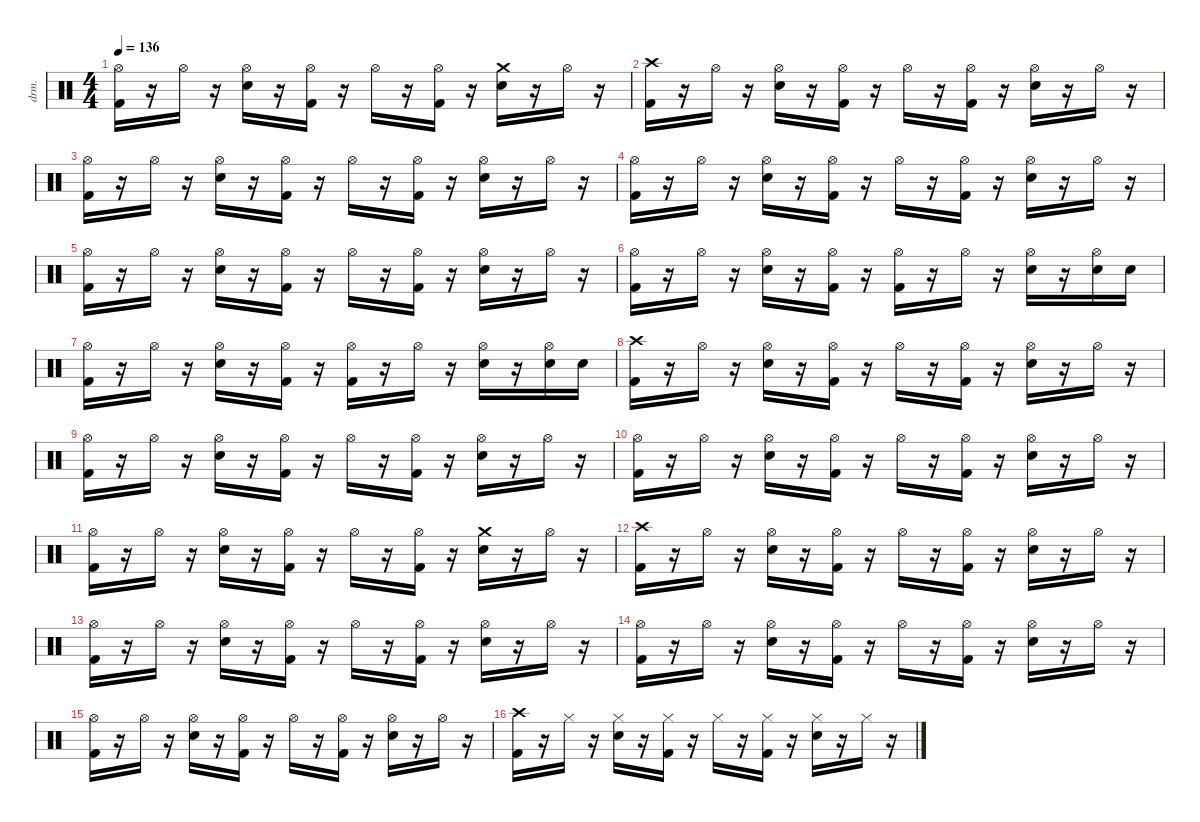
\defaultSystemsLayout 4
\hideDynamics
\bracketExtendMode nobrackets
\otherSystemsTrackNameOrientation horizontal
\track ("Drums" "drm.") {instrument percussion}
\staff {score}
\articulation defaults
\ts (4 4)
\tempo 136
\clef neutral
\ks c
("Kick (hit) 2" "Hi-Hat (open)").16{dy f} r.16 "Hi-Hat (open)".16 r.16 ("Snare (hit) 2" "Hi-Hat (open)").16 r.16 ("Kick (hit) 2" "Hi-Hat (open)").16 r.16 "Hi-Hat (open)".16 r.16 ("Kick (hit) 2" "Hi-Hat (open)").16 r.16 ("Snare (hit) 2" "Crash medium (hit)").16 r.16 "Hi-Hat (open)".16 r.16 |
("Kick (hit) 2" "Crash high (hit)").16 r.16 "Hi-Hat (open)".16 r.16 ("Snare (hit) 2" "Hi-Hat (open)").16 r.16 ("Kick (hit) 2" "Hi-Hat (open)").16 r.16 "Hi-Hat (open)".16 r.16 ("Kick (hit) 2" "Hi-Hat (open)").16 r.16 ("Snare (hit) 2" "Hi-Hat (open)").16 r.16 "Hi-Hat (open)".16 r.16 |
("Kick (hit) 2" "Hi-Hat (open)").16 r.16 "Hi-Hat (open)".16 r.16 ("Snare (hit) 2" "Hi-Hat (open)").16 r.16 ("Kick (hit) 2" "Hi-Hat (open)").16 r.16 "Hi-Hat (open)".16 r.16 ("Kick (hit) 2" "Hi-Hat (open)").16 r.16 ("Snare (hit) 2" "Hi-Hat (open)").16 r.16 "Hi-Hat (open)".16 r.16 |
("Kick (hit) 2" "Hi-Hat (open)").16 r.16 "Hi-Hat (open)".16 r.16 ("Snare (hit) 2" "Hi-Hat (open)").16 r.16 ("Kick (hit) 2" "Hi-Hat (open)").16 r.16 "Hi-Hat (open)".16 r.16 ("Kick (hit) 2" "Hi-Hat (open)").16 r.16 ("Snare (hit) 2" "Hi-Hat (open)").16 r.16 "Hi-Hat (open)".16 r.16 |
("Kick (hit) 2" "Hi-Hat (open)").16 r.16 "Hi-Hat (open)".16 r.16 ("Snare (hit) 2" "Hi-Hat (open)").16 r.16 ("Kick (hit) 2" "Hi-Hat (open)").16 r.16 "Hi-Hat (open)".16 r.16 ("Kick (hit) 2" "Hi-Hat (open)").16 r.16 ("Snare (hit) 2" "Hi-Hat (open)").16 r.16 "Hi-Hat (open)".16 r.16 |
("Kick (hit) 2" "Hi-Hat (open)").16 r.16 "Hi-Hat (open)".16 r.16 ("Snare (hit) 2" "Hi-Hat (open)").16 r.16 ("Kick (hit) 2" "Hi-Hat (open)").16 r.16 ("Kick (hit) 2" "Hi-Hat (open)").16 r.16 "Hi-Hat (open)".16 r.16 ("Snare (hit) 2" "Hi-Hat (open)").16 r.16 ("Snare (hit) 2" "Hi-Hat (open)").16 "Snare (hit) 2".16 |
("Kick (hit) 2" "Hi-Hat (open)").16 r.16 "Hi-Hat (open)".16 r.16 ("Snare (hit) 2" "Hi-Hat (open)").16 r.16 ("Kick (hit) 2" "Hi-Hat (open)").16 r.16 ("Kick (hit) 2" "Hi-Hat (open)").16 r.16 "Hi-Hat (open)".16 r.16 ("Snare (hit) 2" "Hi-Hat (open)").16 r.16 ("Snare (hit) 2" "Hi-Hat (open)").16 "Snare (hit) 2".16 |
("Kick (hit) 2" "Crash high (hit)").16 r.16 "Hi-Hat (open)".16 r.16 ("Snare (hit) 2" "Hi-Hat (open)").16 r.16 ("Kick (hit) 2" "Hi-Hat (open)").16 r.16 "Hi-Hat (open)".16 r.16 ("Kick (hit) 2" "Hi-Hat (open)").16 r.16 ("Snare (hit) 2" "Hi-Hat (open)").16 r.16 "Hi-Hat (open)".16 r.16 |
("Kick (hit) 2" "Hi-Hat (open)").16 r.16 "Hi-Hat (open)".16 r.16 ("Snare (hit) 2" "Hi-Hat (open)").16 r.16 ("Kick (hit) 2" "Hi-Hat (open)").16 r.16 "Hi-Hat (open)".16 r.16 ("Kick (hit) 2" "Hi-Hat (open)").16 r.16 ("Snare (hit) 2" "Hi-Hat (open)").16 r.16 "Hi-Hat (open)".16 r.16 |
("Kick (hit) 2" "Hi-Hat (open)").16 r.16 "Hi-Hat (open)".16 r.16 ("Snare (hit) 2" "Hi-Hat (open)").16 r.16 ("Kick (hit) 2" "Hi-Hat (open)").16 r.16 "Hi-Hat (open)".16 r.16 ("Kick (hit) 2" "Hi-Hat (open)").16 r.16 ("Snare (hit) 2" "Hi-Hat (open)").16 r.16 "Hi-Hat (open)".16 r.16 |
("Kick (hit) 2" "Hi-Hat (open)").16 r.16 "Hi-Hat (open)".16 r.16 ("Snare (hit) 2" "Hi-Hat (open)").16 r.16 ("Kick (hit) 2" "Hi-Hat (open)").16 r.16 "Hi-Hat (open)".16 r.16 ("Kick (hit) 2" "Hi-Hat (open)").16 r.16 ("Snare (hit) 2" "Crash medium (hit)").16 r.16 "Hi-Hat (open)".16 r.16 |
("Kick (hit) 2" "Crash high (hit)").16 r.16 "Hi-Hat (open)".16 r.16 ("Snare (hit) 2" "Hi-Hat (open)").16 r.16 ("Kick (hit) 2" "Hi-Hat (open)").16 r.16 "Hi-Hat (open)".16 r.16 ("Kick (hit) 2" "Hi-Hat (open)").16 r.16 ("Snare (hit) 2" "Hi-Hat (open)").16 r.16 "Hi-Hat (open)".16 r.16 |
("Kick (hit) 2" "Hi-Hat (open)").16 r.16 "Hi-Hat (open)".16 r.16 ("Snare (hit) 2" "Hi-Hat (open)").16 r.16 ("Kick (hit) 2" "Hi-Hat (open)").16 r.16 "Hi-Hat (open)".16 r.16 ("Kick (hit) 2" "Hi-Hat (open)").16 r.16 ("Snare (hit) 2" "Hi-Hat (open)").16 r.16 "Hi-Hat (open)".16 r.16 |
("Kick (hit) 2" "Hi-Hat (open)").16 r.16 "Hi-Hat (open)".16 r.16 ("Snare (hit) 2" "Hi-Hat (open)").16 r.16 ("Kick (hit) 2" "Hi-Hat (open)").16 r.16 "Hi-Hat (open)".16 r.16 ("Kick (hit) 2" "Hi-Hat (open)").16 r.16 ("Snare (hit) 2" "Hi-Hat (open)").16 r.16 "Hi-Hat (open)".16 r.16 |
("Kick (hit) 2" "Hi-Hat (open)").16 r.16 "Hi-Hat (open)".16 r.16 ("Snare (hit) 2" "Hi-Hat (open)").16 r.16 ("Kick (hit) 2" "Hi-Hat (open)").16 r.16 "Hi-Hat (open)".16 r.16 ("Kick (hit) 2" "Hi-Hat (open)").16 r.16 ("Snare (hit) 2" "Hi-Hat (open)").16 r.16 "Hi-Hat (open)".16 r.16 |
("Kick (hit) 2" "Crash high (hit)").16 r.16 "Hi-Hat (closed)".16 r.16 ("Snare (hit) 2" "Hi-Hat (closed)").16 r.16 ("Kick (hit) 2" "Hi-Hat (closed)").16 r.16 "Hi-Hat (closed)".16 r.16 ("Kick (hit) 2" "Hi-Hat (closed)").16 r.16 ("Snare (hit) 2" "Hi-Hat (closed)").16 r.16 "Hi-Hat (closed)".16 r.16
